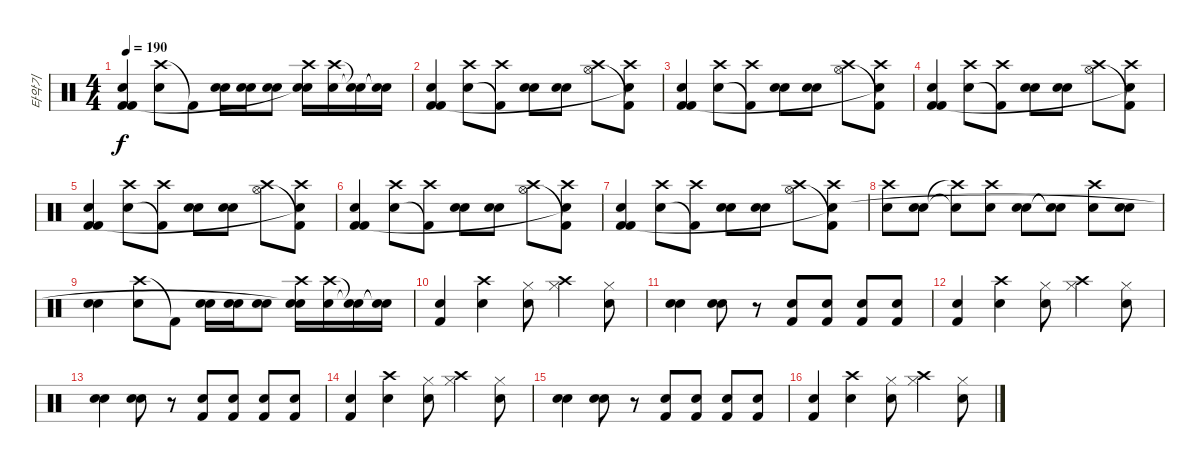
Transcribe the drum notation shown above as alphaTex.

\track ("타악기" "타악기") {instrument percussion}
\staff {score}
\articulation defaults
\ts (4 4)
\tempo 190
\clef neutral
\ks c
("Kick (hit) 2" "Snare (hit) 2" "Kick (hit) 2").4{dy f} ("Crash high (hit)" "Snare (hit) 2").8 "Kick (hit) 2"{t}.8 ("Electric Snare (hit)" "Electric Snare (hit)").16 ("Electric Snare (hit)" "Snare (hit) 2").16 ("Electric Snare (hit)" "Snare (hit) 2").8 ("Crash high (hit)" "Electric Snare (hit)" "Snare (hit)"{t}).16 ("Crash high (hit)" "Electric Snare (hit)").16 ("Snare (hit)"{t} "Snare (hit)"{t}).16 ("Snare (hit)"{t} "Snare (hit)"{t}).16 |
("Kick (hit) 2" "Snare (hit) 2" "Kick (hit) 2").4 ("Crash high (hit)" "Snare (hit) 2").8 ("Crash high (hit)" "Kick (hit) 2"{t}).8 ("Snare (hit) 2" "Electric Snare (hit)").8 ("Snare (hit) 2" "Snare (hit) 2").8 ("Crash high (hit)" "Hi-Hat (open)").8 ("Crash high (hit)" "Kick (hit) 2"{t} "Snare (hit)"{t}).8 |
("Kick (hit) 2" "Snare (hit) 2" "Kick (hit) 2").4 ("Crash high (hit)" "Snare (hit) 2").8 ("Crash high (hit)" "Kick (hit) 2"{t}).8 ("Snare (hit) 2" "Electric Snare (hit)").8 ("Snare (hit) 2" "Snare (hit) 2").8 ("Crash high (hit)" "Hi-Hat (open)").8 ("Crash high (hit)" "Kick (hit) 2"{t} "Snare (hit)"{t}).8 |
("Kick (hit) 2" "Snare (hit) 2" "Kick (hit) 2").4 ("Crash high (hit)" "Snare (hit) 2").8 ("Crash high (hit)" "Kick (hit) 2"{t}).8 ("Snare (hit) 2" "Electric Snare (hit)").8 ("Snare (hit) 2" "Snare (hit) 2").8 ("Crash high (hit)" "Hi-Hat (open)").8 ("Crash high (hit)" "Kick (hit) 2"{t} "Snare (hit)"{t}).8 |
("Kick (hit) 2" "Snare (hit) 2" "Kick (hit) 2").4 ("Crash high (hit)" "Snare (hit) 2").8 ("Crash high (hit)" "Kick (hit) 2"{t}).8 ("Snare (hit) 2" "Electric Snare (hit)").8 ("Snare (hit) 2" "Snare (hit) 2").8 ("Crash high (hit)" "Hi-Hat (open)").8 ("Crash high (hit)" "Kick (hit) 2"{t} "Snare (hit)"{t}).8 |
("Kick (hit) 2" "Snare (hit) 2" "Kick (hit) 2").4 ("Crash high (hit)" "Snare (hit) 2").8 ("Crash high (hit)" "Kick (hit) 2"{t}).8 ("Snare (hit) 2" "Electric Snare (hit)").8 ("Snare (hit) 2" "Snare (hit) 2").8 ("Crash high (hit)" "Hi-Hat (open)").8 ("Crash high (hit)" "Kick (hit) 2"{t} "Snare (hit)"{t}).8 |
("Kick (hit) 2" "Snare (hit) 2" "Kick (hit) 2").4 ("Crash high (hit)" "Snare (hit) 2").8 ("Crash high (hit)" "Kick (hit) 2"{t}).8 ("Snare (hit) 2" "Electric Snare (hit)").8 ("Snare (hit) 2" "Snare (hit) 2").8 ("Crash high (hit)" "Hi-Hat (open)").8 ("Crash high (hit)" "Kick (hit) 2"{t} "Snare (hit)"{t}).8 |
("Snare (hit) 2" "Crash high (hit)").8 ("Snare (hit) 2" "Electric Snare (hit)").8 ("Snare (hit) 2"{t} "Crash high (hit)"{t}).8 ("Snare (hit) 2" "Crash high (hit)").8 ("Snare (hit) 2" "Electric Snare (hit)").8 ("Snare (hit) 2"{t} "Electric Snare (hit)"{t}).8 ("Snare (hit) 2" "Crash high (hit)").8 ("Snare (hit) 2" "Electric Snare (hit)").8 |
("Electric Snare (hit)" "Snare (hit) 2").4 ("Crash high (hit)" "Snare (hit) 2").8 "Kick (hit) 2"{t}.8 ("Electric Snare (hit)" "Electric Snare (hit)").16 ("Electric Snare (hit)" "Snare (hit) 2").16 ("Electric Snare (hit)" "Snare (hit) 2").8 ("Crash high (hit)" "Electric Snare (hit)" "Snare (hit)"{t}).16 ("Crash high (hit)" "Electric Snare (hit)").16 ("Snare (hit)"{t} "Snare (hit)"{t}).16 ("Snare (hit)"{t} "Snare (hit)"{t}).16 |
("Snare (hit) 2" "Kick (hit) 2").4 ("Electric Snare (hit)" "Crash high (hit)").4 ("Hi-Hat (closed)" "Snare (hit) 2").8 ("Hi-Hat (closed)" "Crash high (hit)").4 ("Hi-Hat (closed)" "Snare (hit) 2").8 |
("Electric Snare (hit)" "Snare (hit) 2").4 ("Electric Snare (hit)" "Snare (hit) 2").8 r.8 ("Electric Snare (hit)" "Kick (hit) 2").8 ("Electric Snare (hit)" "Kick (hit) 2").8 ("Electric Snare (hit)" "Kick (hit) 2").8 ("Electric Snare (hit)" "Kick (hit) 2").8 |
("Snare (hit) 2" "Kick (hit) 2").4 ("Electric Snare (hit)" "Crash high (hit)").4 ("Hi-Hat (closed)" "Snare (hit) 2").8 ("Hi-Hat (closed)" "Crash high (hit)").4 ("Hi-Hat (closed)" "Snare (hit) 2").8 |
("Electric Snare (hit)" "Snare (hit) 2").4 ("Electric Snare (hit)" "Snare (hit) 2").8 r.8 ("Electric Snare (hit)" "Kick (hit) 2").8 ("Electric Snare (hit)" "Kick (hit) 2").8 ("Electric Snare (hit)" "Kick (hit) 2").8 ("Electric Snare (hit)" "Kick (hit) 2").8 |
("Snare (hit) 2" "Kick (hit) 2").4 ("Electric Snare (hit)" "Crash high (hit)").4 ("Hi-Hat (closed)" "Snare (hit) 2").8 ("Hi-Hat (closed)" "Crash high (hit)").4 ("Hi-Hat (closed)" "Snare (hit) 2").8 |
("Electric Snare (hit)" "Snare (hit) 2").4 ("Electric Snare (hit)" "Snare (hit) 2").8 r.8 ("Electric Snare (hit)" "Kick (hit) 2").8 ("Electric Snare (hit)" "Kick (hit) 2").8 ("Electric Snare (hit)" "Kick (hit) 2").8 ("Electric Snare (hit)" "Kick (hit) 2").8 |
("Snare (hit) 2" "Kick (hit) 2").4 ("Electric Snare (hit)" "Crash high (hit)").4 ("Hi-Hat (closed)" "Snare (hit) 2").8 ("Hi-Hat (closed)" "Crash high (hit)").4 ("Hi-Hat (closed)" "Snare (hit) 2").8
